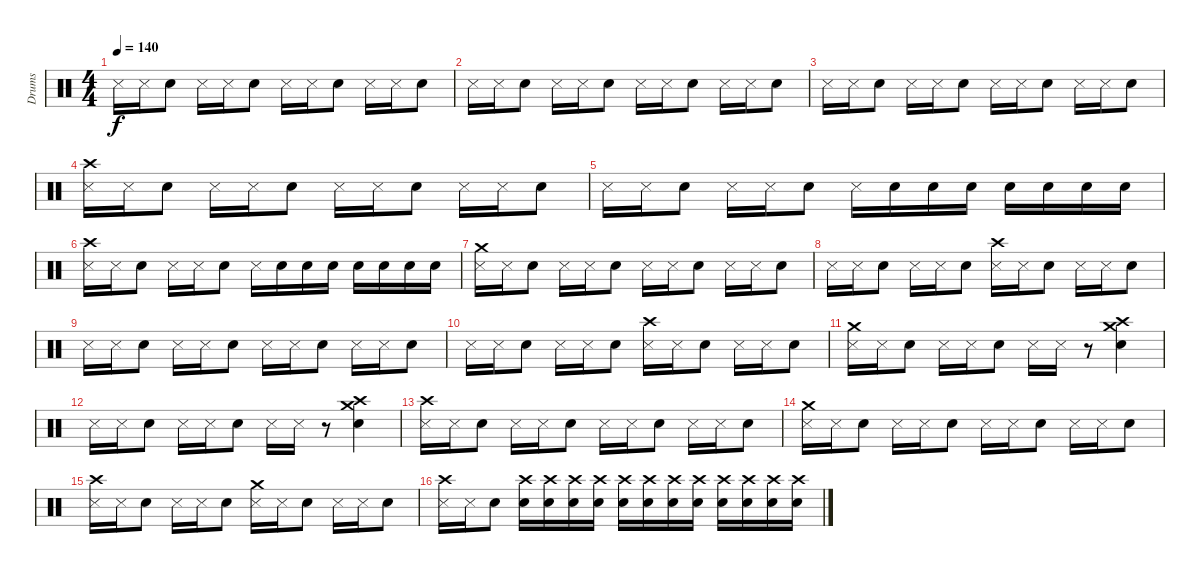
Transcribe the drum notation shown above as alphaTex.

\track ("Drums" "Drums") {instrument percussion}
\staff {score}
\articulation defaults
\ts (4 4)
\tempo 140
\clef neutral
\ks c "Metronome (hit)".16{dy f} "Metronome (hit)".16 "Electric Snare (hit)".8 "Metronome (hit)".16 "Metronome (hit)".16 "Electric Snare (hit)".8 "Metronome (hit)".16 "Metronome (hit)".16 "Electric Snare (hit)".8 "Metronome (hit)".16 "Metronome (hit)".16 "Electric Snare (hit)".8
|
"Metronome (hit)".16 "Metronome (hit)".16 "Electric Snare (hit)".8 "Metronome (hit)".16 "Metronome (hit)".16 "Electric Snare (hit)".8 "Metronome (hit)".16 "Metronome (hit)".16 "Electric Snare (hit)".8 "Metronome (hit)".16 "Metronome (hit)".16 "Electric Snare (hit)".8 |
"Metronome (hit)".16 "Metronome (hit)".16 "Electric Snare (hit)".8 "Metronome (hit)".16 "Metronome (hit)".16 "Electric Snare (hit)".8 "Metronome (hit)".16 "Metronome (hit)".16 "Electric Snare (hit)".8 "Metronome (hit)".16 "Metronome (hit)".16 "Electric Snare (hit)".8 |
("Crash high (hit)" "Metronome (hit)").16 "Metronome (hit)".16 "Electric Snare (hit)".8 "Metronome (hit)".16 "Metronome (hit)".16 "Electric Snare (hit)".8 "Metronome (hit)".16 "Metronome (hit)".16 "Electric Snare (hit)".8 "Metronome (hit)".16 "Metronome (hit)".16 "Electric Snare (hit)".8 |
"Metronome (hit)".16 "Metronome (hit)".16 "Electric Snare (hit)".8 "Metronome (hit)".16 "Metronome (hit)".16 "Electric Snare (hit)".8 "Metronome (hit)".16 "Snare (hit) 2".16 "Snare (hit) 2".16 "Snare (hit) 2".16 "Snare (hit) 2".16 "Snare (hit) 2".16 "Snare (hit) 2".16 "Snare (hit) 2".16 |
("Crash high (hit)" "Metronome (hit)").16 "Metronome (hit)".16 "Electric Snare (hit)".8 "Metronome (hit)".16 "Metronome (hit)".16 "Electric Snare (hit)".8 "Metronome (hit)".16 "Snare (hit) 2".16 "Snare (hit) 2".16 "Snare (hit) 2".16 "Snare (hit) 2".16 "Snare (hit) 2".16 "Snare (hit) 2".16 "Snare (hit) 2".16 |
("Crash medium (hit)" "Metronome (hit)").16 "Metronome (hit)".16 "Electric Snare (hit)".8 "Metronome (hit)".16 "Metronome (hit)".16 "Electric Snare (hit)".8 "Metronome (hit)".16 "Metronome (hit)".16 "Electric Snare (hit)".8 "Metronome (hit)".16 "Metronome (hit)".16 "Electric Snare (hit)".8 |
"Metronome (hit)".16 "Metronome (hit)".16 "Electric Snare (hit)".8 "Metronome (hit)".16 "Metronome (hit)".16 "Electric Snare (hit)".8 ("Crash high (hit)" "Metronome (hit)").16 "Metronome (hit)".16 "Electric Snare (hit)".8 "Metronome (hit)".16 "Metronome (hit)".16 "Electric Snare (hit)".8 |
"Metronome (hit)".16 "Metronome (hit)".16 "Electric Snare (hit)".8 "Metronome (hit)".16 "Metronome (hit)".16 "Electric Snare (hit)".8 "Metronome (hit)".16 "Metronome (hit)".16 "Electric Snare (hit)".8 "Metronome (hit)".16 "Metronome (hit)".16 "Electric Snare (hit)".8 |
"Metronome (hit)".16 "Metronome (hit)".16 "Electric Snare (hit)".8 "Metronome (hit)".16 "Metronome (hit)".16 "Electric Snare (hit)".8 ("Crash high (hit)" "Metronome (hit)").16 "Metronome (hit)".16 "Electric Snare (hit)".8 "Metronome (hit)".16 "Metronome (hit)".16 "Electric Snare (hit)".8 |
("Crash medium (hit)" "Metronome (hit)").16 "Metronome (hit)".16 "Electric Snare (hit)".8 "Metronome (hit)".16 "Metronome (hit)".16 "Electric Snare (hit)".8 "Metronome (hit)".16 "Metronome (hit)".16 r.8 ("Crash medium (hit)" "Crash high (hit)" "Electric Snare (hit)").4 |
"Metronome (hit)".16 "Metronome (hit)".16 "Electric Snare (hit)".8 "Metronome (hit)".16 "Metronome (hit)".16 "Electric Snare (hit)".8 "Metronome (hit)".16 "Metronome (hit)".16 r.8 ("Crash medium (hit)" "Crash high (hit)" "Electric Snare (hit)").4 |
("Crash high (hit)" "Metronome (hit)").16 "Metronome (hit)".16 "Electric Snare (hit)".8 "Metronome (hit)".16 "Metronome (hit)".16 "Electric Snare (hit)".8 "Metronome (hit)".16 "Metronome (hit)".16 "Electric Snare (hit)".8 "Metronome (hit)".16 "Metronome (hit)".16 "Electric Snare (hit)".8 |
("Crash medium (hit)" "Metronome (hit)").16 "Metronome (hit)".16 "Electric Snare (hit)".8 "Metronome (hit)".16 "Metronome (hit)".16 "Electric Snare (hit)".8 "Metronome (hit)".16 "Metronome (hit)".16 "Electric Snare (hit)".8 "Metronome (hit)".16 "Metronome (hit)".16 "Electric Snare (hit)".8 |
("Crash high (hit)" "Metronome (hit)").16 "Metronome (hit)".16 "Electric Snare (hit)".8 "Metronome (hit)".16 "Metronome (hit)".16 "Electric Snare (hit)".8 ("Crash medium (hit)" "Metronome (hit)").16 "Metronome (hit)".16 "Electric Snare (hit)".8 "Metronome (hit)".16 "Metronome (hit)".16 "Electric Snare (hit)".8 |
("Crash high (hit)" "Metronome (hit)").16 "Metronome (hit)".16 "Electric Snare (hit)".8 ("Crash high (hit)" "Electric Snare (hit)").16 ("Crash high (hit)" "Electric Snare (hit)").16 ("Crash high (hit)" "Electric Snare (hit)").16 ("Crash high (hit)" "Electric Snare (hit)").16 ("Crash high (hit)" "Electric Snare (hit)").16 ("Crash high (hit)" "Electric Snare (hit)").16 ("Crash high (hit)" "Electric Snare (hit)").16 ("Crash high (hit)" "Electric Snare (hit)").16 ("Crash high (hit)" "Electric Snare (hit)").16 ("Crash high (hit)" "Electric Snare (hit)").16 ("Crash high (hit)" "Electric Snare (hit)").16 ("Crash high (hit)" "Electric Snare (hit)").16
